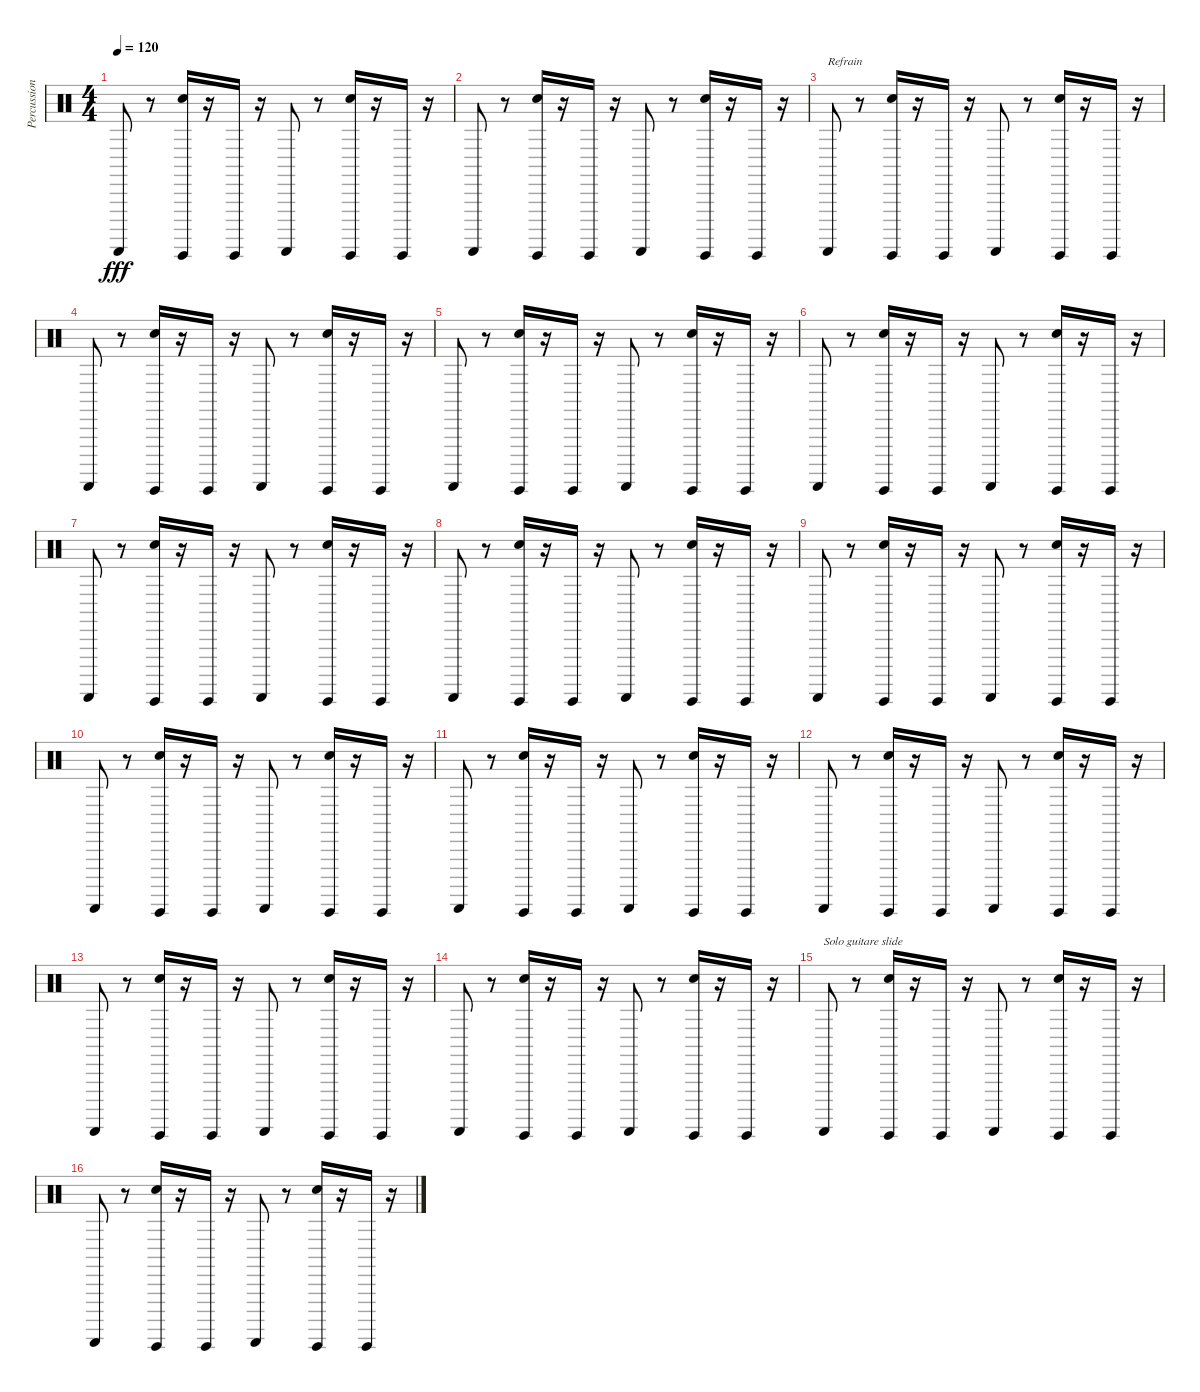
\track ("Percussions" "Percussion") {instrument percussion}
\staff {score}
\articulation defaults
\ts (4 4)
\tempo 120
\clef neutral
\ks c "Guiro (scrap-return)".8{dy fff}
r.8 ("Guiro (hit)" "Hand Clap (hit)").16 r.16 "Guiro (hit)".16 r.16 "Guiro (scrap-return)".8 r.8 ("Guiro (hit)" "Hand Clap (hit)").16 r.16 "Guiro (hit)".16 r.16 |
"Guiro (scrap-return)".8 r.8 ("Guiro (hit)" "Hand Clap (hit)").16 r.16 "Guiro (hit)".16 r.16 "Guiro (scrap-return)".8 r.8 ("Guiro (hit)" "Hand Clap (hit)").16 r.16 "Guiro (hit)".16 r.16 |
"Guiro (scrap-return)".8{txt "Refrain"} r.8 ("Guiro (hit)" "Hand Clap (hit)").16 r.16 "Guiro (hit)".16 r.16 "Guiro (scrap-return)".8 r.8 ("Guiro (hit)" "Hand Clap (hit)").16 r.16 "Guiro (hit)".16 r.16 |
"Guiro (scrap-return)".8 r.8 ("Guiro (hit)" "Hand Clap (hit)").16 r.16 "Guiro (hit)".16 r.16 "Guiro (scrap-return)".8 r.8 ("Guiro (hit)" "Hand Clap (hit)").16 r.16 "Guiro (hit)".16 r.16 |
"Guiro (scrap-return)".8 r.8 ("Guiro (hit)" "Hand Clap (hit)").16 r.16 "Guiro (hit)".16 r.16 "Guiro (scrap-return)".8 r.8 ("Guiro (hit)" "Hand Clap (hit)").16 r.16 "Guiro (hit)".16 r.16 |
"Guiro (scrap-return)".8 r.8 ("Guiro (hit)" "Hand Clap (hit)").16 r.16 "Guiro (hit)".16 r.16 "Guiro (scrap-return)".8 r.8 ("Guiro (hit)" "Hand Clap (hit)").16 r.16 "Guiro (hit)".16 r.16 |
"Guiro (scrap-return)".8 r.8 ("Guiro (hit)" "Hand Clap (hit)").16 r.16 "Guiro (hit)".16 r.16 "Guiro (scrap-return)".8 r.8 ("Guiro (hit)" "Hand Clap (hit)").16 r.16 "Guiro (hit)".16 r.16 |
"Guiro (scrap-return)".8 r.8 ("Guiro (hit)" "Hand Clap (hit)").16 r.16 "Guiro (hit)".16 r.16 "Guiro (scrap-return)".8 r.8 ("Guiro (hit)" "Hand Clap (hit)").16 r.16 "Guiro (hit)".16 r.16 |
"Guiro (scrap-return)".8 r.8 ("Guiro (hit)" "Hand Clap (hit)").16 r.16 "Guiro (hit)".16 r.16 "Guiro (scrap-return)".8 r.8 ("Guiro (hit)" "Hand Clap (hit)").16 r.16 "Guiro (hit)".16 r.16 |
"Guiro (scrap-return)".8 r.8 ("Guiro (hit)" "Hand Clap (hit)").16 r.16 "Guiro (hit)".16 r.16 "Guiro (scrap-return)".8 r.8 ("Guiro (hit)" "Hand Clap (hit)").16 r.16 "Guiro (hit)".16 r.16 |
"Guiro (scrap-return)".8 r.8 ("Guiro (hit)" "Hand Clap (hit)").16 r.16 "Guiro (hit)".16 r.16 "Guiro (scrap-return)".8 r.8 ("Guiro (hit)" "Hand Clap (hit)").16 r.16 "Guiro (hit)".16 r.16 |
"Guiro (scrap-return)".8 r.8 ("Guiro (hit)" "Hand Clap (hit)").16 r.16 "Guiro (hit)".16 r.16 "Guiro (scrap-return)".8 r.8 ("Guiro (hit)" "Hand Clap (hit)").16 r.16 "Guiro (hit)".16 r.16 |
"Guiro (scrap-return)".8 r.8 ("Guiro (hit)" "Hand Clap (hit)").16 r.16 "Guiro (hit)".16 r.16 "Guiro (scrap-return)".8 r.8 ("Guiro (hit)" "Hand Clap (hit)").16 r.16 "Guiro (hit)".16 r.16 |
"Guiro (scrap-return)".8 r.8 ("Guiro (hit)" "Hand Clap (hit)").16 r.16 "Guiro (hit)".16 r.16 "Guiro (scrap-return)".8 r.8 ("Guiro (hit)" "Hand Clap (hit)").16 r.16 "Guiro (hit)".16 r.16 |
"Guiro (scrap-return)".8{txt "Solo guitare slide"} r.8 ("Guiro (hit)" "Hand Clap (hit)").16 r.16 "Guiro (hit)".16 r.16 "Guiro (scrap-return)".8 r.8 ("Guiro (hit)" "Hand Clap (hit)").16 r.16 "Guiro (hit)".16 r.16 |
"Guiro (scrap-return)".8 r.8 ("Guiro (hit)" "Hand Clap (hit)").16 r.16 "Guiro (hit)".16 r.16 "Guiro (scrap-return)".8 r.8 ("Guiro (hit)" "Hand Clap (hit)").16 r.16 "Guiro (hit)".16 r.16
